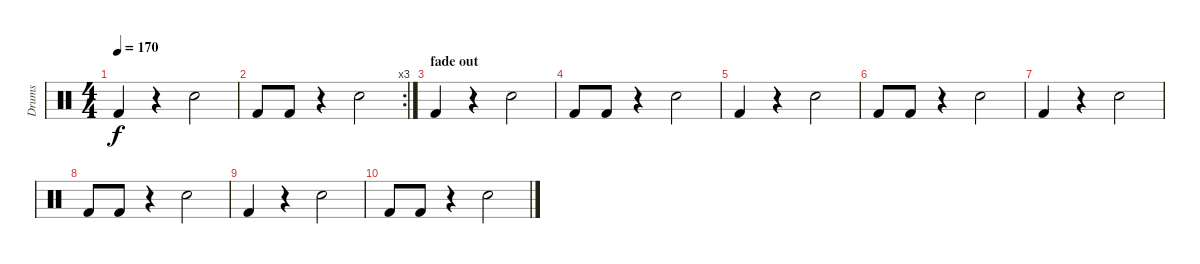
\track ("Drums" "Drums") {instrument percussion}
\staff {score}
\articulation defaults
\ts (4 4)
\tempo 170
\clef neutral
\ks c "Kick (hit) 2".4{dy f}
r.4 "Snare (hit) 2".2 |
\rc 3 "Kick (hit) 2".8 "Kick (hit) 2".8
r.4 "Snare (hit) 2".2 |
\section ("" "fade out")
"Kick (hit) 2".4 r.4 "Snare (hit) 2".2 |
"Kick (hit) 2".8 "Kick (hit) 2".8 r.4 "Snare (hit) 2".2 |
"Kick (hit) 2".4 r.4 "Snare (hit) 2".2 |
"Kick (hit) 2".8 "Kick (hit) 2".8 r.4 "Snare (hit) 2".2 |
"Kick (hit) 2".4 r.4 "Snare (hit) 2".2 |
"Kick (hit) 2".8 "Kick (hit) 2".8 r.4 "Snare (hit) 2".2 |
"Kick (hit) 2".4 r.4 "Snare (hit) 2".2 |
"Kick (hit) 2".8 "Kick (hit) 2".8 r.4 "Snare (hit) 2".2
